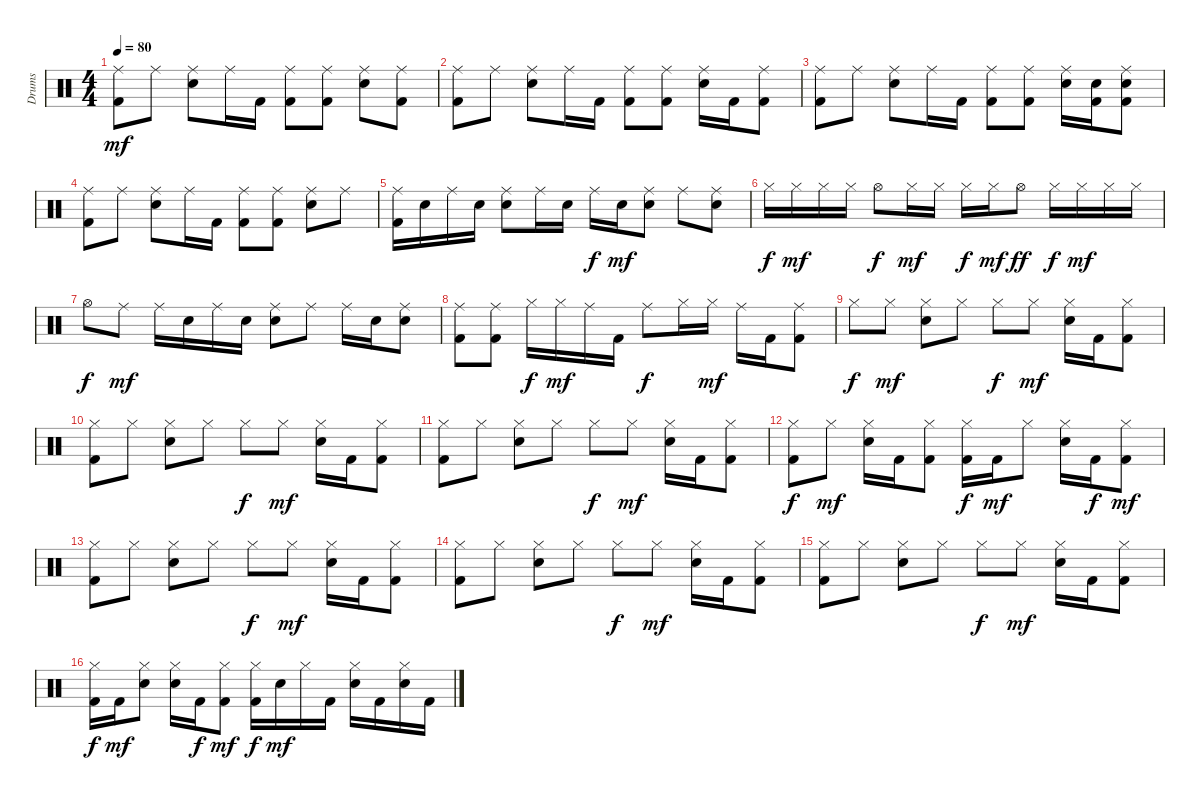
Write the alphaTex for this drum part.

\track ("Drums" "Drums") {instrument percussion}
\staff {score}
\articulation defaults
\ts (4 4)
\tempo 80
\clef neutral
\ks c
("Ride (middle)" "Kick (hit) 2").8{dy mf} "Ride (middle)".8 ("Ride (middle)" "Electric Snare (hit)").8 "Ride (middle)".16 "Kick (hit) 2".16 ("Ride (middle)" "Kick (hit) 2").8 ("Ride (middle)" "Kick (hit) 2").8 ("Ride (middle)" "Electric Snare (hit)").8 ("Ride (middle)" "Kick (hit) 2").8 |
("Ride (middle)" "Kick (hit) 2").8 "Ride (middle)".8 ("Ride (middle)" "Electric Snare (hit)").8 "Ride (middle)".16 "Kick (hit) 2".16 ("Ride (middle)" "Kick (hit) 2").8 ("Ride (middle)" "Kick (hit) 2").8 ("Ride (middle)" "Electric Snare (hit)").16 "Kick (hit) 2".16 ("Ride (middle)" "Kick (hit) 2").8 |
("Ride (middle)" "Kick (hit) 2").8 "Ride (middle)".8 ("Ride (middle)" "Electric Snare (hit)").8 "Ride (middle)".16 "Kick (hit) 2".16 ("Ride (middle)" "Kick (hit) 2").8 ("Ride (middle)" "Kick (hit) 2").8 ("Ride (middle)" "Electric Snare (hit)").16 ("Electric Snare (hit)" "Kick (hit) 2").16 ("Ride (middle)" "Electric Snare (hit)" "Kick (hit) 2").8 |
("Ride (middle)" "Kick (hit) 2").8 "Ride (middle)".8 ("Ride (middle)" "Electric Snare (hit)").8 "Ride (middle)".16 "Kick (hit) 2".16 ("Ride (middle)" "Kick (hit) 2").8 ("Ride (middle)" "Kick (hit) 2").8 ("Ride (middle)" "Electric Snare (hit)").8 "Ride (middle)".8 |
("Ride (middle)" "Kick (hit) 2").16 "Electric Snare (hit)".16 "Ride (middle)".16 "Electric Snare (hit)".16 ("Ride (middle)" "Electric Snare (hit)").8 "Ride (middle)".16 "Electric Snare (hit)".16 "Ride (middle)".16{dy f} "Electric Snare (hit)".16{dy mf} ("Ride (middle)" "Electric Snare (hit)").8 "Ride (middle)".8 ("Ride (middle)" "Electric Snare (hit)").8 |
"Hi-Hat (closed)".16{dy f} "Hi-Hat (closed)".16{dy mf} "Hi-Hat (closed)".16 "Hi-Hat (closed)".16 "Hi-Hat (open)".8{dy f} "Hi-Hat (closed)".16{dy mf} "Hi-Hat (closed)".16 "Hi-Hat (closed)".16{dy f} "Hi-Hat (closed)".16{dy mf} "Hi-Hat (open)".8{dy ff} "Hi-Hat (closed)".16{dy f} "Hi-Hat (closed)".16{dy mf} "Hi-Hat (closed)".16 "Hi-Hat (closed)".16 |
"Hi-Hat (open)".8{dy f} "Ride (middle)".8{dy mf} "Ride (middle)".16 "Electric Snare (hit)".16 "Ride (middle)".16 "Electric Snare (hit)".16 ("Ride (middle)" "Electric Snare (hit)").8 "Ride (middle)".8 "Ride (middle)".16 "Electric Snare (hit)".16 ("Ride (middle)" "Electric Snare (hit)").8 |
("Ride (middle)" "Kick (hit) 2").8 ("Ride (middle)" "Kick (hit) 2").8 "Hi-Hat (closed)".16{dy f} "Hi-Hat (closed)".16{dy mf} "Ride (middle)".16 "Kick (hit) 2".16 "Ride (middle)".8{dy f} "Hi-Hat (closed)".16 "Hi-Hat (closed)".16{dy mf} "Ride (middle)".16 "Kick (hit) 2".16 ("Ride (middle)" "Kick (hit) 2").8 |
"Hi-Hat (closed)".8{dy f} "Hi-Hat (closed)".8{dy mf} ("Hi-Hat (closed)" "Electric Snare (hit)").8 "Hi-Hat (closed)".8 "Hi-Hat (closed)".8{dy f} "Hi-Hat (closed)".8{dy mf} ("Hi-Hat (closed)" "Electric Snare (hit)").16 "Kick (hit) 2".16 ("Hi-Hat (closed)" "Kick (hit) 2").8 |
("Hi-Hat (closed)" "Kick (hit) 2").8 "Hi-Hat (closed)".8 ("Hi-Hat (closed)" "Electric Snare (hit)").8 "Hi-Hat (closed)".8 "Hi-Hat (closed)".8{dy f} "Hi-Hat (closed)".8{dy mf} ("Hi-Hat (closed)" "Electric Snare (hit)").16 "Kick (hit) 2".16 ("Hi-Hat (closed)" "Kick (hit) 2").8 |
("Hi-Hat (closed)" "Kick (hit) 2").8 "Hi-Hat (closed)".8 ("Hi-Hat (closed)" "Electric Snare (hit)").8 "Hi-Hat (closed)".8 "Hi-Hat (closed)".8{dy f} "Hi-Hat (closed)".8{dy mf} ("Hi-Hat (closed)" "Electric Snare (hit)").16 "Kick (hit) 2".16 ("Hi-Hat (closed)" "Kick (hit) 2").8 |
("Hi-Hat (closed)" "Kick (hit) 2").8{dy f} "Hi-Hat (closed)".8{dy mf} ("Hi-Hat (closed)" "Electric Snare (hit)").16 "Kick (hit) 2".16 ("Hi-Hat (closed)" "Kick (hit) 2").8 ("Hi-Hat (closed)" "Kick (hit) 2").16{dy f} "Kick (hit) 2".16{dy mf} "Hi-Hat (closed)".8 ("Hi-Hat (closed)" "Electric Snare (hit)").16 "Kick (hit) 2".16{dy f} ("Hi-Hat (closed)" "Kick (hit) 2").8{dy mf} |
("Hi-Hat (closed)" "Kick (hit) 2").8 "Hi-Hat (closed)".8 ("Hi-Hat (closed)" "Electric Snare (hit)").8 "Hi-Hat (closed)".8 "Hi-Hat (closed)".8{dy f} "Hi-Hat (closed)".8{dy mf} ("Hi-Hat (closed)" "Electric Snare (hit)").16 "Kick (hit) 2".16 ("Hi-Hat (closed)" "Kick (hit) 2").8 |
("Hi-Hat (closed)" "Kick (hit) 2").8 "Hi-Hat (closed)".8 ("Hi-Hat (closed)" "Electric Snare (hit)").8 "Hi-Hat (closed)".8 "Hi-Hat (closed)".8{dy f} "Hi-Hat (closed)".8{dy mf} ("Hi-Hat (closed)" "Electric Snare (hit)").16 "Kick (hit) 2".16 ("Hi-Hat (closed)" "Kick (hit) 2").8 |
("Hi-Hat (closed)" "Kick (hit) 2").8 "Hi-Hat (closed)".8 ("Hi-Hat (closed)" "Electric Snare (hit)").8 "Hi-Hat (closed)".8 "Hi-Hat (closed)".8{dy f} "Hi-Hat (closed)".8{dy mf} ("Hi-Hat (closed)" "Electric Snare (hit)").16 "Kick (hit) 2".16 ("Hi-Hat (closed)" "Kick (hit) 2").8 |
("Hi-Hat (closed)" "Kick (hit) 2").16{dy f} "Kick (hit) 2".16{dy mf} ("Hi-Hat (closed)" "Electric Snare (hit)").8 ("Hi-Hat (closed)" "Electric Snare (hit)").16 "Kick (hit) 2".16{dy f} ("Hi-Hat (closed)" "Kick (hit) 2").8{dy mf} ("Hi-Hat (closed)" "Kick (hit) 2").16{dy f} "Electric Snare (hit)".16{dy mf} "Hi-Hat (closed)".16 "Kick (hit) 2".16 ("Hi-Hat (closed)" "Electric Snare (hit)").16 "Kick (hit) 2".16 ("Hi-Hat (closed)" "Electric Snare (hit)").16 "Kick (hit) 2".16
